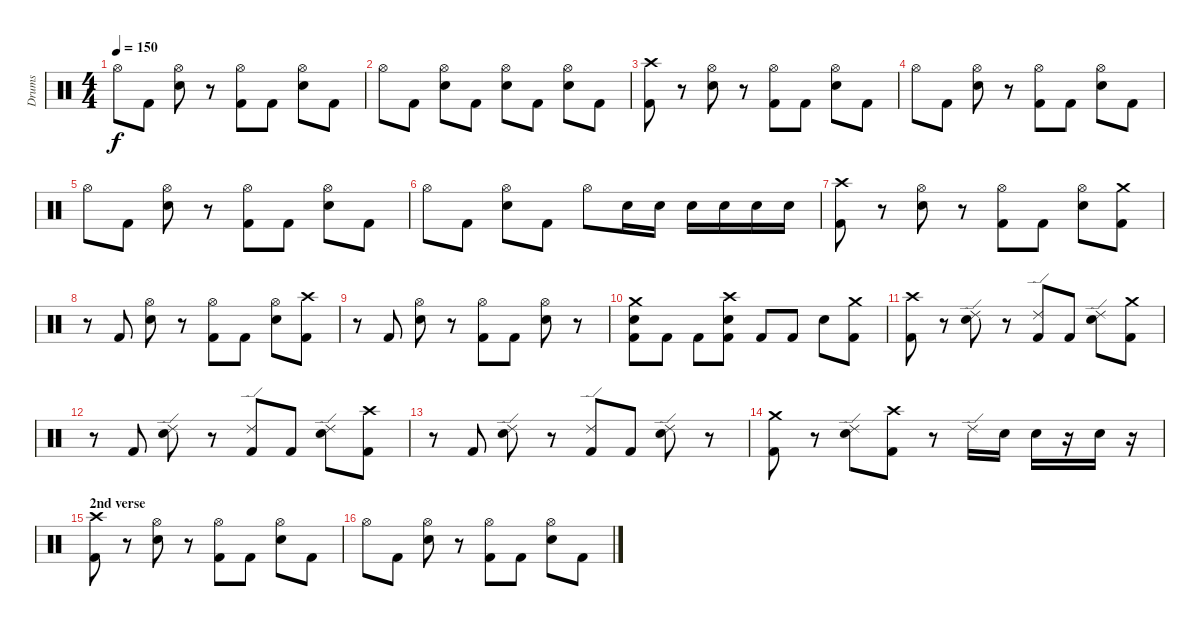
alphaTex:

\track ("Drums" "Drums") {instrument percussion}
\staff {score}
\articulation defaults
\ts (4 4)
\tempo 150
\clef neutral
\ks c "Hi-Hat (open)".8{dy f} "Kick (hit) 2".8
("Hi-Hat (open)" "Snare (hit) 2").8 r.8 ("Hi-Hat (open)" "Kick (hit) 2").8 "Kick (hit) 2".8 ("Hi-Hat (open)" "Snare (hit) 2").8 "Kick (hit) 2".8 |
"Hi-Hat (open)".8 "Kick (hit) 2".8 ("Hi-Hat (open)" "Snare (hit) 2").8 "Kick (hit) 2".8 ("Hi-Hat (open)" "Snare (hit) 2").8 "Kick (hit) 2".8 ("Hi-Hat (open)" "Snare (hit) 2").8 "Kick (hit) 2".8 |
("Crash high (hit)" "Kick (hit) 2").8 r.8 ("Hi-Hat (open)" "Snare (hit) 2").8 r.8 ("Hi-Hat (open)" "Kick (hit) 2").8 "Kick (hit) 2".8 ("Hi-Hat (open)" "Snare (hit) 2").8 "Kick (hit) 2".8 |
"Hi-Hat (open)".8 "Kick (hit) 2".8 ("Hi-Hat (open)" "Snare (hit) 2").8 r.8 ("Hi-Hat (open)" "Kick (hit) 2").8 "Kick (hit) 2".8 ("Hi-Hat (open)" "Snare (hit) 2").8 "Kick (hit) 2".8 |
"Hi-Hat (open)".8 "Kick (hit) 2".8 ("Hi-Hat (open)" "Snare (hit) 2").8 r.8 ("Hi-Hat (open)" "Kick (hit) 2").8 "Kick (hit) 2".8 ("Hi-Hat (open)" "Snare (hit) 2").8 "Kick (hit) 2".8 |
"Hi-Hat (open)".8 "Kick (hit) 2".8 ("Hi-Hat (open)" "Snare (hit) 2").8 "Kick (hit) 2".8 "Hi-Hat (open)".8 "Snare (hit) 2".16 "Snare (hit) 2".16 "Snare (hit) 2".16 "Snare (hit) 2".16 "Snare (hit) 2".16 "Snare (hit) 2".16 |
\section ("" "")
("Crash high (hit)" "Kick (hit) 2").8 r.8 ("Hi-Hat (open)" "Snare (hit) 2").8 r.8 ("Hi-Hat (open)" "Kick (hit) 2").8 "Kick (hit) 2".8 ("Hi-Hat (open)" "Snare (hit) 2").8 ("Crash medium (hit)" "Kick (hit) 2").8 |
r.8 "Kick (hit) 2".8 ("Hi-Hat (open)" "Snare (hit) 2").8 r.8 ("Hi-Hat (open)" "Kick (hit) 2").8 "Kick (hit) 2".8 ("Hi-Hat (open)" "Snare (hit) 2").8 ("Crash high (hit)" "Kick (hit) 2").8 |
r.8 "Kick (hit) 2".8 ("Hi-Hat (open)" "Snare (hit) 2").8 r.8 ("Hi-Hat (open)" "Kick (hit) 2").8 "Kick (hit) 2".8 ("Hi-Hat (open)" "Snare (hit) 2").8 r.8 |
("Crash medium (hit)" "Snare (hit) 2" "Kick (hit) 2").8 "Kick (hit) 2".8 "Kick (hit) 2".8 ("Crash high (hit)" "Snare (hit) 2" "Kick (hit) 2").8 "Kick (hit) 2".8 "Kick (hit) 2".8 "Snare (hit) 2".8 ("Crash medium (hit)" "Kick (hit) 2").8 |
("Crash high (hit)" "Kick (hit) 2").8 r.8 ("Ride (edge) 2" "Snare (hit) 2").8 r.8 ("Ride (edge) 2" "Kick (hit) 2").8 "Kick (hit) 2".8 ("Ride (edge) 2" "Snare (hit) 2").8 ("Crash medium (hit)" "Kick (hit) 2").8 |
r.8 "Kick (hit) 2".8 ("Ride (edge) 2" "Snare (hit) 2").8 r.8 ("Ride (edge) 2" "Kick (hit) 2").8 "Kick (hit) 2".8 ("Ride (edge) 2" "Snare (hit) 2").8 ("Crash high (hit)" "Kick (hit) 2").8 |
r.8 "Kick (hit) 2".8 ("Ride (edge) 2" "Snare (hit) 2").8 r.8 ("Ride (edge) 2" "Kick (hit) 2").8 "Kick (hit) 2".8 ("Ride (edge) 2" "Snare (hit) 2").8 r.8 |
("Crash medium (hit)" "Kick (hit) 2").8 r.8 ("Ride (edge) 2" "Snare (hit) 2").8 ("Crash high (hit)" "Kick (hit) 2").8 r.8 "Ride (edge) 2".16 "Snare (hit) 2".16 "Snare (hit) 2".16 r.16 "Snare (hit) 2".16 r.16 |
\section ("" "2nd verse")
("Crash high (hit)" "Kick (hit) 2").8 r.8 ("Hi-Hat (open)" "Snare (hit) 2").8 r.8 ("Hi-Hat (open)" "Kick (hit) 2").8 "Kick (hit) 2".8 ("Hi-Hat (open)" "Snare (hit) 2").8 "Kick (hit) 2".8 |
"Hi-Hat (open)".8 "Kick (hit) 2".8 ("Hi-Hat (open)" "Snare (hit) 2").8 r.8 ("Hi-Hat (open)" "Kick (hit) 2").8 "Kick (hit) 2".8 ("Hi-Hat (open)" "Snare (hit) 2").8 "Kick (hit) 2".8
